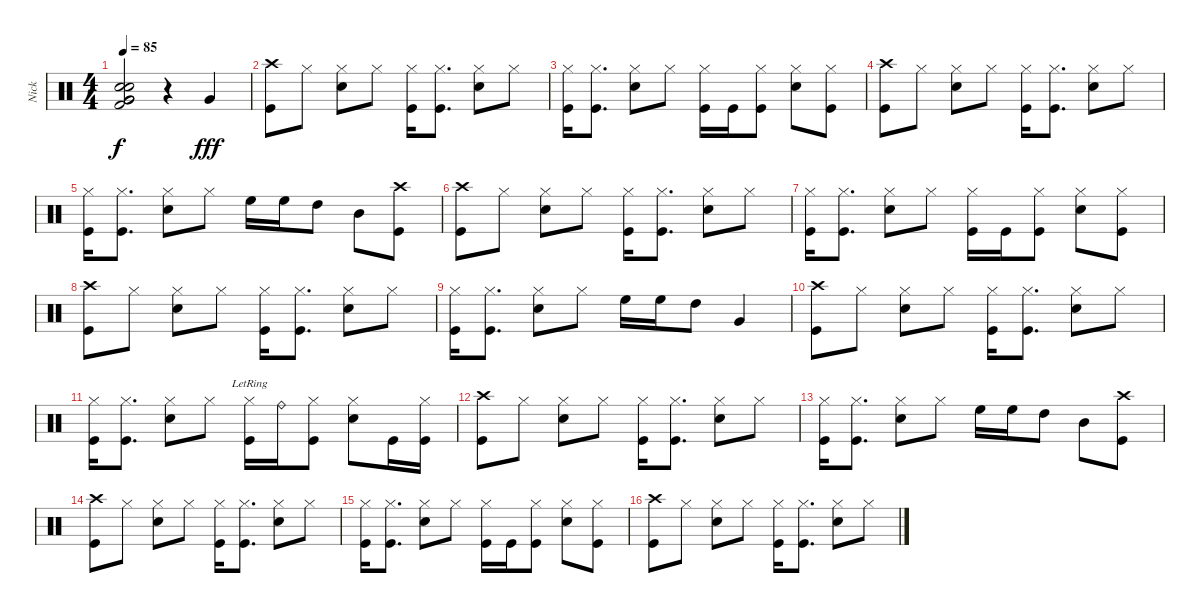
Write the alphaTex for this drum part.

\track ("Nick" "Nick") {instrument percussion}
\staff {score}
\articulation defaults
\ts (4 4)
\tempo 85
\clef neutral
\ks c
("Very Low Tom (hit)" "Very Low Tom (hit)" "Very Low Tom (hit)" "Electric Snare (hit)" "Electric Snare (hit)" "Kick (hit) 2").2{dy f} r.4 "Very Low Tom (hit)".4{dy fff} |
("Kick (hit)" "Crash high (hit)").8 "Hi-Hat (closed)".8 ("Hi-Hat (closed)" "Snare (hit) 2").8 "Hi-Hat (closed)".8 ("Kick (hit)" "Hi-Hat (closed)").16 ("Kick (hit)" "Hi-Hat (closed)").8{d} ("Hi-Hat (closed)" "Snare (hit) 2").8 "Hi-Hat (closed)".8 |
("Kick (hit)" "Hi-Hat (closed)").16 ("Kick (hit)" "Hi-Hat (closed)").8{d} ("Hi-Hat (closed)" "Snare (hit) 2").8 "Hi-Hat (closed)".8 ("Kick (hit)" "Hi-Hat (closed)").16 "Kick (hit)".16 ("Kick (hit)" "Hi-Hat (closed)").8 ("Hi-Hat (closed)" "Snare (hit) 2").8 ("Kick (hit)" "Hi-Hat (closed)").8 |
("Kick (hit)" "Crash high (hit)").8 "Hi-Hat (closed)".8 ("Hi-Hat (closed)" "Snare (hit) 2").8 "Hi-Hat (closed)".8 ("Kick (hit)" "Hi-Hat (closed)").16 ("Kick (hit)" "Hi-Hat (closed)").8{d} ("Hi-Hat (closed)" "Snare (hit) 2").8 "Hi-Hat (closed)".8 |
("Kick (hit)" "Hi-Hat (closed)").16 ("Kick (hit)" "Hi-Hat (closed)").8{d} ("Hi-Hat (closed)" "Snare (hit) 2").8 "Hi-Hat (closed)".8 "High Floor Tom (hit)".16 "High Floor Tom (hit)".16 "High Tom (hit)".8 "Mid Tom (hit)".8 ("Kick (hit)" "Crash high (hit)").8 |
("Kick (hit)" "Crash high (hit)").8 "Hi-Hat (closed)".8 ("Hi-Hat (closed)" "Snare (hit) 2").8 "Hi-Hat (closed)".8 ("Kick (hit)" "Hi-Hat (closed)").16 ("Kick (hit)" "Hi-Hat (closed)").8{d} ("Hi-Hat (closed)" "Snare (hit) 2").8 "Hi-Hat (closed)".8 |
("Kick (hit)" "Hi-Hat (closed)").16 ("Kick (hit)" "Hi-Hat (closed)").8{d} ("Hi-Hat (closed)" "Snare (hit) 2").8 "Hi-Hat (closed)".8 ("Kick (hit)" "Hi-Hat (closed)").16 "Kick (hit)".16 ("Kick (hit)" "Hi-Hat (closed)").8 ("Hi-Hat (closed)" "Snare (hit) 2").8 ("Kick (hit)" "Hi-Hat (closed)").8 |
("Kick (hit)" "Crash high (hit)").8 "Hi-Hat (closed)".8 ("Hi-Hat (closed)" "Snare (hit) 2").8 "Hi-Hat (closed)".8 ("Kick (hit)" "Hi-Hat (closed)").16 ("Kick (hit)" "Hi-Hat (closed)").8{d} ("Hi-Hat (closed)" "Snare (hit) 2").8 "Hi-Hat (closed)".8 |
("Kick (hit)" "Hi-Hat (closed)").16 ("Kick (hit)" "Hi-Hat (closed)").8{d} ("Hi-Hat (closed)" "Snare (hit) 2").8 "Hi-Hat (closed)".8 "High Floor Tom (hit)".16 "High Floor Tom (hit)".16 "High Tom (hit)".8 "Very Low Tom (hit)".4 |
("Kick (hit)" "Crash high (hit)").8 "Hi-Hat (closed)".8 ("Hi-Hat (closed)" "Snare (hit) 2").8 "Hi-Hat (closed)".8 ("Kick (hit)" "Hi-Hat (closed)").16 ("Kick (hit)" "Hi-Hat (closed)").8{d} ("Hi-Hat (closed)" "Snare (hit) 2").8 "Hi-Hat (closed)".8 |
("Kick (hit)" "Hi-Hat (closed)").16 ("Kick (hit)" "Hi-Hat (closed)").8{d} ("Hi-Hat (closed)" "Snare (hit) 2").8 "Hi-Hat (closed)".8 ("Kick (hit)" "Hi-Hat (closed)"{lr}).16 "Ride (bell)".16 ("Kick (hit)" "Hi-Hat (closed)").8 ("Hi-Hat (closed)" "Snare (hit) 2").8 "Kick (hit)".16 ("Kick (hit)" "Hi-Hat (closed)").16 |
("Kick (hit)" "Crash high (hit)").8 "Hi-Hat (closed)".8 ("Hi-Hat (closed)" "Snare (hit) 2").8 "Hi-Hat (closed)".8 ("Kick (hit)" "Hi-Hat (closed)").16 ("Kick (hit)" "Hi-Hat (closed)").8{d} ("Hi-Hat (closed)" "Snare (hit) 2").8 "Hi-Hat (closed)".8 |
("Kick (hit)" "Hi-Hat (closed)").16 ("Kick (hit)" "Hi-Hat (closed)").8{d} ("Hi-Hat (closed)" "Snare (hit) 2").8 "Hi-Hat (closed)".8 "High Floor Tom (hit)".16 "High Floor Tom (hit)".16 "High Tom (hit)".8 "Mid Tom (hit)".8 ("Kick (hit)" "Crash high (hit)").8 |
("Kick (hit)" "Crash high (hit)").8 "Hi-Hat (closed)".8 ("Hi-Hat (closed)" "Snare (hit) 2").8 "Hi-Hat (closed)".8 ("Kick (hit)" "Hi-Hat (closed)").16 ("Kick (hit)" "Hi-Hat (closed)").8{d} ("Hi-Hat (closed)" "Snare (hit) 2").8 "Hi-Hat (closed)".8 |
("Kick (hit)" "Hi-Hat (closed)").16 ("Kick (hit)" "Hi-Hat (closed)").8{d} ("Hi-Hat (closed)" "Snare (hit) 2").8 "Hi-Hat (closed)".8 ("Kick (hit)" "Hi-Hat (closed)").16 "Kick (hit)".16 ("Kick (hit)" "Hi-Hat (closed)").8 ("Hi-Hat (closed)" "Snare (hit) 2").8 ("Kick (hit)" "Hi-Hat (closed)").8 |
("Kick (hit)" "Crash high (hit)").8 "Hi-Hat (closed)".8 ("Hi-Hat (closed)" "Snare (hit) 2").8 "Hi-Hat (closed)".8 ("Kick (hit)" "Hi-Hat (closed)").16 ("Kick (hit)" "Hi-Hat (closed)").8{d} ("Hi-Hat (closed)" "Snare (hit) 2").8 "Hi-Hat (closed)".8
